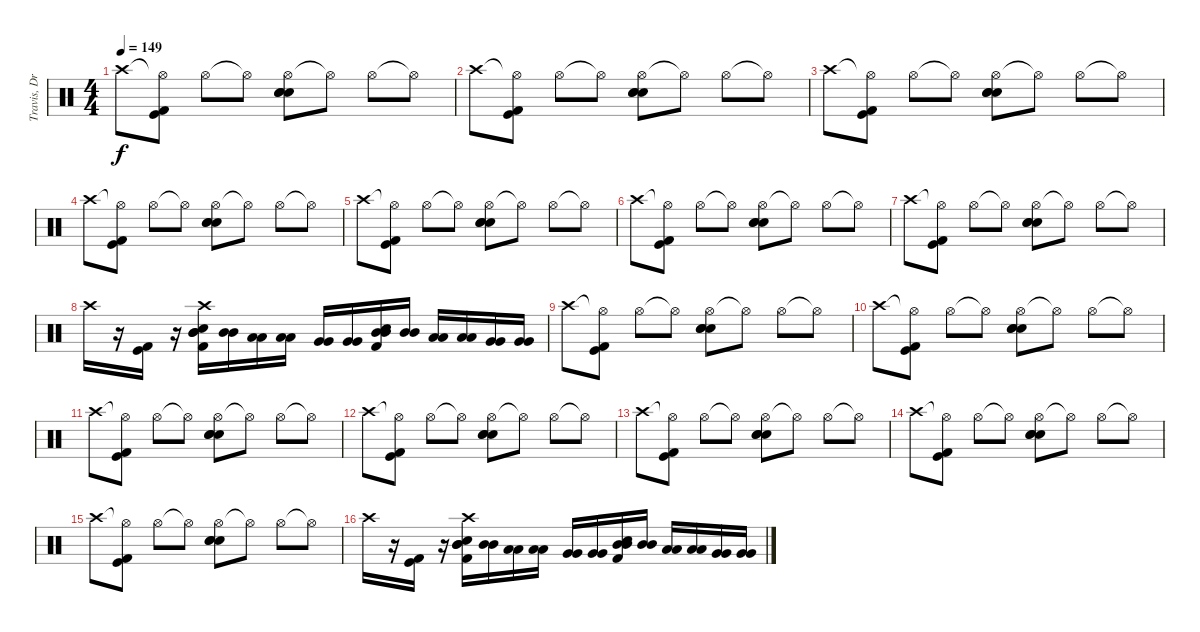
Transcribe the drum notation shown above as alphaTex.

\track ("Travis, Drums {Tabbed by Peter B.}" "Travis, Dr") {instrument percussion}
\staff {score}
\articulation defaults
\ts (4 4)
\tempo 149
\clef neutral
\ks c "Crash high (hit)".8{dy f}
("Hi-Hat (open)"{t} "Kick (hit)" "Kick (hit) 2").8 "Hi-Hat (open)".8 "Hi-Hat (open)"{t}.8 ("Hi-Hat (open)" "Electric Snare (hit)" "Electric Snare (hit)" "Snare (hit) 2").8 "Hi-Hat (open)"{t}.8 "Hi-Hat (open)".8 "Hi-Hat (open)"{t}.8 |
"Crash high (hit)".8 ("Hi-Hat (open)"{t} "Kick (hit)" "Kick (hit) 2").8 "Hi-Hat (open)".8 "Hi-Hat (open)"{t}.8 ("Hi-Hat (open)" "Electric Snare (hit)" "Electric Snare (hit)" "Snare (hit) 2").8 "Hi-Hat (open)"{t}.8 "Hi-Hat (open)".8 "Hi-Hat (open)"{t}.8 |
"Crash high (hit)".8 ("Hi-Hat (open)"{t} "Kick (hit)" "Kick (hit) 2").8 "Hi-Hat (open)".8 "Hi-Hat (open)"{t}.8 ("Hi-Hat (open)" "Electric Snare (hit)" "Electric Snare (hit)" "Snare (hit) 2").8 "Hi-Hat (open)"{t}.8 "Hi-Hat (open)".8 "Hi-Hat (open)"{t}.8 |
"Crash high (hit)".8 ("Hi-Hat (open)"{t} "Kick (hit)" "Kick (hit) 2").8 "Hi-Hat (open)".8 "Hi-Hat (open)"{t}.8 ("Hi-Hat (open)" "Electric Snare (hit)" "Electric Snare (hit)" "Snare (hit) 2").8 "Hi-Hat (open)"{t}.8 "Hi-Hat (open)".8 "Hi-Hat (open)"{t}.8 |
"Crash high (hit)".8 ("Hi-Hat (open)"{t} "Kick (hit)" "Kick (hit) 2").8 "Hi-Hat (open)".8 "Hi-Hat (open)"{t}.8 ("Hi-Hat (open)" "Electric Snare (hit)" "Electric Snare (hit)" "Snare (hit) 2").8 "Hi-Hat (open)"{t}.8 "Hi-Hat (open)".8 "Hi-Hat (open)"{t}.8 |
"Crash high (hit)".8 ("Hi-Hat (open)"{t} "Kick (hit)" "Kick (hit) 2").8 "Hi-Hat (open)".8 "Hi-Hat (open)"{t}.8 ("Hi-Hat (open)" "Electric Snare (hit)" "Electric Snare (hit)" "Snare (hit) 2").8 "Hi-Hat (open)"{t}.8 "Hi-Hat (open)".8 "Hi-Hat (open)"{t}.8 |
"Crash high (hit)".8 ("Hi-Hat (open)"{t} "Kick (hit)" "Kick (hit) 2").8 "Hi-Hat (open)".8 "Hi-Hat (open)"{t}.8 ("Hi-Hat (open)" "Electric Snare (hit)" "Electric Snare (hit)" "Snare (hit) 2").8 "Hi-Hat (open)"{t}.8 "Hi-Hat (open)".8 "Hi-Hat (open)"{t}.8 |
"Crash high (hit)".16 r.16 ("Kick (hit)" "Kick (hit) 2").16 r.16 ("Crash high (hit)" "Mid Tom (hit)" "Mid Tom (hit)" "Electric Snare (hit)" "Kick (hit) 2").16 ("Mid Tom (hit)" "Mid Tom (hit)").16 ("Low Tom (hit)" "Low Tom (hit)").16 ("Low Tom (hit)" "Low Tom (hit)").16 ("Very Low Tom (hit)" "Very Low Tom (hit)").16 ("Very Low Tom (hit)" "Very Low Tom (hit)").16 ("Mid Tom (hit)" "Mid Tom (hit)" "Electric Snare (hit)" "Kick (hit) 2").16 ("Mid Tom (hit)" "Mid Tom (hit)").16 ("Low Tom (hit)" "Low Tom (hit)").16 ("Low Tom (hit)" "Low Tom (hit)").16 ("Very Low Tom (hit)" "Very Low Tom (hit)").16 ("Very Low Tom (hit)" "Very Low Tom (hit)").16 |
"Crash high (hit)".8 ("Hi-Hat (open)"{t} "Kick (hit)" "Kick (hit) 2").8 "Hi-Hat (open)".8 "Hi-Hat (open)"{t}.8 ("Hi-Hat (open)" "Electric Snare (hit)" "Electric Snare (hit)" "Snare (hit) 2").8 "Hi-Hat (open)"{t}.8 "Hi-Hat (open)".8 "Hi-Hat (open)"{t}.8 |
"Crash high (hit)".8 ("Hi-Hat (open)"{t} "Kick (hit)" "Kick (hit) 2").8 "Hi-Hat (open)".8 "Hi-Hat (open)"{t}.8 ("Hi-Hat (open)" "Electric Snare (hit)" "Electric Snare (hit)" "Snare (hit) 2").8 "Hi-Hat (open)"{t}.8 "Hi-Hat (open)".8 "Hi-Hat (open)"{t}.8 |
"Crash high (hit)".8 ("Hi-Hat (open)"{t} "Kick (hit)" "Kick (hit) 2").8 "Hi-Hat (open)".8 "Hi-Hat (open)"{t}.8 ("Hi-Hat (open)" "Electric Snare (hit)" "Electric Snare (hit)" "Snare (hit) 2").8 "Hi-Hat (open)"{t}.8 "Hi-Hat (open)".8 "Hi-Hat (open)"{t}.8 |
"Crash high (hit)".8 ("Hi-Hat (open)"{t} "Kick (hit)" "Kick (hit) 2").8 "Hi-Hat (open)".8 "Hi-Hat (open)"{t}.8 ("Hi-Hat (open)" "Electric Snare (hit)" "Electric Snare (hit)" "Snare (hit) 2").8 "Hi-Hat (open)"{t}.8 "Hi-Hat (open)".8 "Hi-Hat (open)"{t}.8 |
"Crash high (hit)".8 ("Hi-Hat (open)"{t} "Kick (hit)" "Kick (hit) 2").8 "Hi-Hat (open)".8 "Hi-Hat (open)"{t}.8 ("Hi-Hat (open)" "Electric Snare (hit)" "Electric Snare (hit)" "Snare (hit) 2").8 "Hi-Hat (open)"{t}.8 "Hi-Hat (open)".8 "Hi-Hat (open)"{t}.8 |
"Crash high (hit)".8 ("Hi-Hat (open)"{t} "Kick (hit)" "Kick (hit) 2").8 "Hi-Hat (open)".8 "Hi-Hat (open)"{t}.8 ("Hi-Hat (open)" "Electric Snare (hit)" "Electric Snare (hit)" "Snare (hit) 2").8 "Hi-Hat (open)"{t}.8 "Hi-Hat (open)".8 "Hi-Hat (open)"{t}.8 |
"Crash high (hit)".8 ("Hi-Hat (open)"{t} "Kick (hit)" "Kick (hit) 2").8 "Hi-Hat (open)".8 "Hi-Hat (open)"{t}.8 ("Hi-Hat (open)" "Electric Snare (hit)" "Electric Snare (hit)" "Snare (hit) 2").8 "Hi-Hat (open)"{t}.8 "Hi-Hat (open)".8 "Hi-Hat (open)"{t}.8 |
"Crash high (hit)".16 r.16 ("Kick (hit)" "Kick (hit) 2").16 r.16 ("Crash high (hit)" "Mid Tom (hit)" "Mid Tom (hit)" "Electric Snare (hit)" "Kick (hit) 2").16 ("Mid Tom (hit)" "Mid Tom (hit)").16 ("Low Tom (hit)" "Low Tom (hit)").16 ("Low Tom (hit)" "Low Tom (hit)").16 ("Very Low Tom (hit)" "Very Low Tom (hit)").16 ("Very Low Tom (hit)" "Very Low Tom (hit)").16 ("Mid Tom (hit)" "Mid Tom (hit)" "Electric Snare (hit)" "Kick (hit) 2").16 ("Mid Tom (hit)" "Mid Tom (hit)").16 ("Low Tom (hit)" "Low Tom (hit)").16 ("Low Tom (hit)" "Low Tom (hit)").16 ("Very Low Tom (hit)" "Very Low Tom (hit)").16 ("Very Low Tom (hit)" "Very Low Tom (hit)").16
